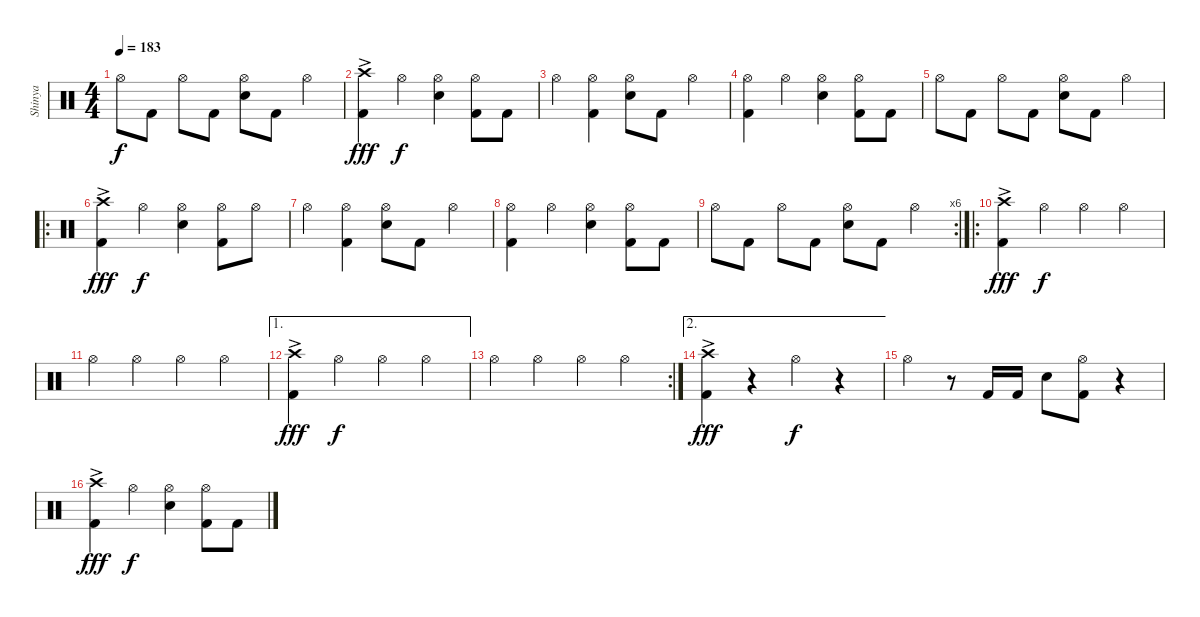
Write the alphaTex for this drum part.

\track ("Shinya" "Shinya") {instrument percussion}
\staff {score}
\articulation defaults
\ts (4 4)
\tempo 183
\clef neutral
\ks c "Hi-Hat (open)".8{dy f} "Kick (hit) 2".8 "Hi-Hat (open)".8 "Kick (hit) 2".8
("Hi-Hat (open)" "Snare (hit) 2").8 "Kick (hit) 2".8 "Hi-Hat (open)".4 |
("Crash high (hit)"{ac} "Kick (hit) 2").4{dy fff} "Hi-Hat (open)".4{dy f} ("Hi-Hat (open)" "Snare (hit) 2").4 ("Hi-Hat (open)" "Kick (hit) 2").8 "Kick (hit) 2".8 |
"Hi-Hat (open)".4 ("Hi-Hat (open)" "Kick (hit) 2").4 ("Hi-Hat (open)" "Snare (hit) 2").8 "Kick (hit) 2".8 "Hi-Hat (open)".4 |
("Hi-Hat (open)" "Kick (hit) 2").4 "Hi-Hat (open)".4 ("Hi-Hat (open)" "Snare (hit) 2").4 ("Hi-Hat (open)" "Kick (hit) 2").8 "Kick (hit) 2".8 |
"Hi-Hat (open)".8 "Kick (hit) 2".8 "Hi-Hat (open)".8 "Kick (hit) 2".8 ("Hi-Hat (open)" "Snare (hit) 2").8 "Kick (hit) 2".8 "Hi-Hat (open)".4 |
\ro
("Crash high (hit)"{ac} "Kick (hit) 2").4{dy fff} "Hi-Hat (open)".4{dy f} ("Hi-Hat (open)" "Snare (hit) 2").4 ("Hi-Hat (open)" "Kick (hit) 2").8 "Hi-Hat (open)".8 |
"Hi-Hat (open)".4 ("Hi-Hat (open)" "Kick (hit) 2").4 ("Hi-Hat (open)" "Snare (hit) 2").8 "Kick (hit) 2".8 "Hi-Hat (open)".4 |
("Hi-Hat (open)" "Kick (hit) 2").4 "Hi-Hat (open)".4 ("Hi-Hat (open)" "Snare (hit) 2").4 ("Hi-Hat (open)" "Kick (hit) 2").8 "Kick (hit) 2".8 |
\rc 6 "Hi-Hat (open)".8 "Kick (hit) 2".8 "Hi-Hat (open)".8 "Kick (hit) 2".8
("Hi-Hat (open)" "Snare (hit) 2").8 "Kick (hit) 2".8 "Hi-Hat (open)".4 |
\ro
("Crash high (hit)"{ac} "Kick (hit) 2").4{dy fff} "Hi-Hat (open)".4{dy f} "Hi-Hat (open)".4 "Hi-Hat (open)".4 |
"Hi-Hat (open)".4 "Hi-Hat (open)".4 "Hi-Hat (open)".4 "Hi-Hat (open)".4 |
\ae 1
("Crash high (hit)"{ac} "Kick (hit) 2").4{dy fff} "Hi-Hat (open)".4{dy f} "Hi-Hat (open)".4 "Hi-Hat (open)".4 |
\rc 2 "Hi-Hat (open)".4 "Hi-Hat (open)".4 "Hi-Hat (open)".4 "Hi-Hat (open)".4
|
\ae 2
("Crash high (hit)"{ac} "Kick (hit) 2").4{dy fff} r.4 "Hi-Hat (open)".4{dy f} r.4 |
"Hi-Hat (open)".4 r.8 "Kick (hit) 2".16 "Kick (hit) 2".16 "Snare (hit) 2".8 ("Hi-Hat (open)" "Kick (hit) 2").8 r.4 |
("Crash high (hit)"{ac} "Kick (hit) 2").4{dy fff} "Hi-Hat (open)".4{dy f} ("Hi-Hat (open)" "Snare (hit) 2").4 ("Hi-Hat (open)" "Kick (hit) 2").8 "Kick (hit) 2".8
